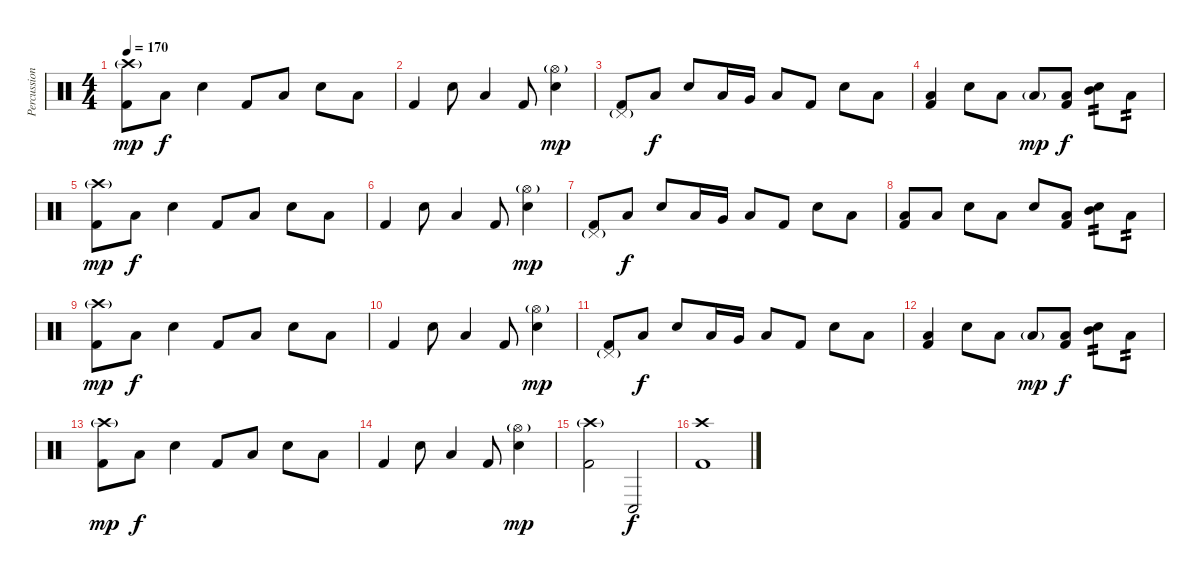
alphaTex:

\track ("Percussion" "Percussion") {instrument percussion}
\staff {score}
\articulation defaults
\ts (4 4)
\tempo 170
\clef neutral
\ks c
("Crash high (hit)"{g} "Kick (hit) 2").8{dy mp} "Low Floor Tom (hit)".8{dy f} "Electric Snare (hit)".4 "Kick (hit) 2".8 "Low Floor Tom (hit)".8 "Electric Snare (hit)".8 "Low Floor Tom (hit)".8 |
"Kick (hit) 2".4 "Electric Snare (hit)".8 "Low Floor Tom (hit)".4 "Kick (hit) 2".8 ("Hi-Hat (open)"{g} "Electric Snare (hit)").4{dy mp} |
("Pedal Hi-Hat (hit)"{g} "Kick (hit) 2").8 "Low Floor Tom (hit)".8{dy f} "Electric Snare (hit)".8 "Low Floor Tom (hit)".16 "Very Low Tom (hit)".16 "Low Floor Tom (hit)".8 "Kick (hit) 2".8 "Electric Snare (hit)".8 "Low Floor Tom (hit)".8 |
("Low Floor Tom (hit)" "Kick (hit) 2").4 "Electric Snare (hit)".8 "Low Floor Tom (hit)".8 "Low Floor Tom (hit)"{g}.8{dy mp} ("Low Floor Tom (hit)" "Kick (hit) 2").8{dy f} ("Mid Tom (hit)" "Electric Snare (hit)").8{tp 2} "Low Tom (hit)".8{tp 2} |
("Crash high (hit)"{g} "Kick (hit) 2").8{dy mp} "Low Floor Tom (hit)".8{dy f} "Electric Snare (hit)".4 "Kick (hit) 2".8 "Low Floor Tom (hit)".8 "Electric Snare (hit)".8 "Low Floor Tom (hit)".8 |
"Kick (hit) 2".4 "Electric Snare (hit)".8 "Low Floor Tom (hit)".4 "Kick (hit) 2".8 ("Hi-Hat (open)"{g} "Electric Snare (hit)").4{dy mp} |
("Pedal Hi-Hat (hit)"{g} "Kick (hit) 2").8 "Low Floor Tom (hit)".8{dy f} "Electric Snare (hit)".8 "Low Floor Tom (hit)".16 "Very Low Tom (hit)".16 "Low Floor Tom (hit)".8 "Kick (hit) 2".8 "Electric Snare (hit)".8 "Low Floor Tom (hit)".8 |
("Low Floor Tom (hit)" "Kick (hit) 2").8 "Low Floor Tom (hit)".8 "Electric Snare (hit)".8 "Low Floor Tom (hit)".8 "Electric Snare (hit)".8 ("Low Floor Tom (hit)" "Kick (hit) 2").8 ("Mid Tom (hit)" "Electric Snare (hit)").8{tp 2} "Low Tom (hit)".8{tp 2} |
("Crash high (hit)"{g} "Kick (hit) 2").8{dy mp} "Low Floor Tom (hit)".8{dy f} "Electric Snare (hit)".4 "Kick (hit) 2".8 "Low Floor Tom (hit)".8 "Electric Snare (hit)".8 "Low Floor Tom (hit)".8 |
"Kick (hit) 2".4 "Electric Snare (hit)".8 "Low Floor Tom (hit)".4 "Kick (hit) 2".8 ("Hi-Hat (open)"{g} "Electric Snare (hit)").4{dy mp} |
("Pedal Hi-Hat (hit)"{g} "Kick (hit) 2").8 "Low Floor Tom (hit)".8{dy f} "Electric Snare (hit)".8 "Low Floor Tom (hit)".16 "Very Low Tom (hit)".16 "Low Floor Tom (hit)".8 "Kick (hit) 2".8 "Electric Snare (hit)".8 "Low Floor Tom (hit)".8 |
("Low Floor Tom (hit)" "Kick (hit) 2").4 "Electric Snare (hit)".8 "Low Floor Tom (hit)".8 "Low Floor Tom (hit)"{g}.8{dy mp} ("Low Floor Tom (hit)" "Kick (hit) 2").8{dy f} ("Mid Tom (hit)" "Electric Snare (hit)").8{tp 2} "Low Tom (hit)".8{tp 2} |
("Crash high (hit)"{g} "Kick (hit) 2").8{dy mp} "Low Floor Tom (hit)".8{dy f} "Electric Snare (hit)".4 "Kick (hit) 2".8 "Low Floor Tom (hit)".8 "Electric Snare (hit)".8 "Low Floor Tom (hit)".8 |
"Kick (hit) 2".4 "Electric Snare (hit)".8 "Low Floor Tom (hit)".4 "Kick (hit) 2".8 ("Hi-Hat (open)"{g} "Electric Snare (hit)").4{dy mp} |
("Crash high (hit)"{g} "Kick (hit) 2").2 "Conga low (hit)".2{dy f} |
("Crash high (hit)" "Kick (hit) 2").1
